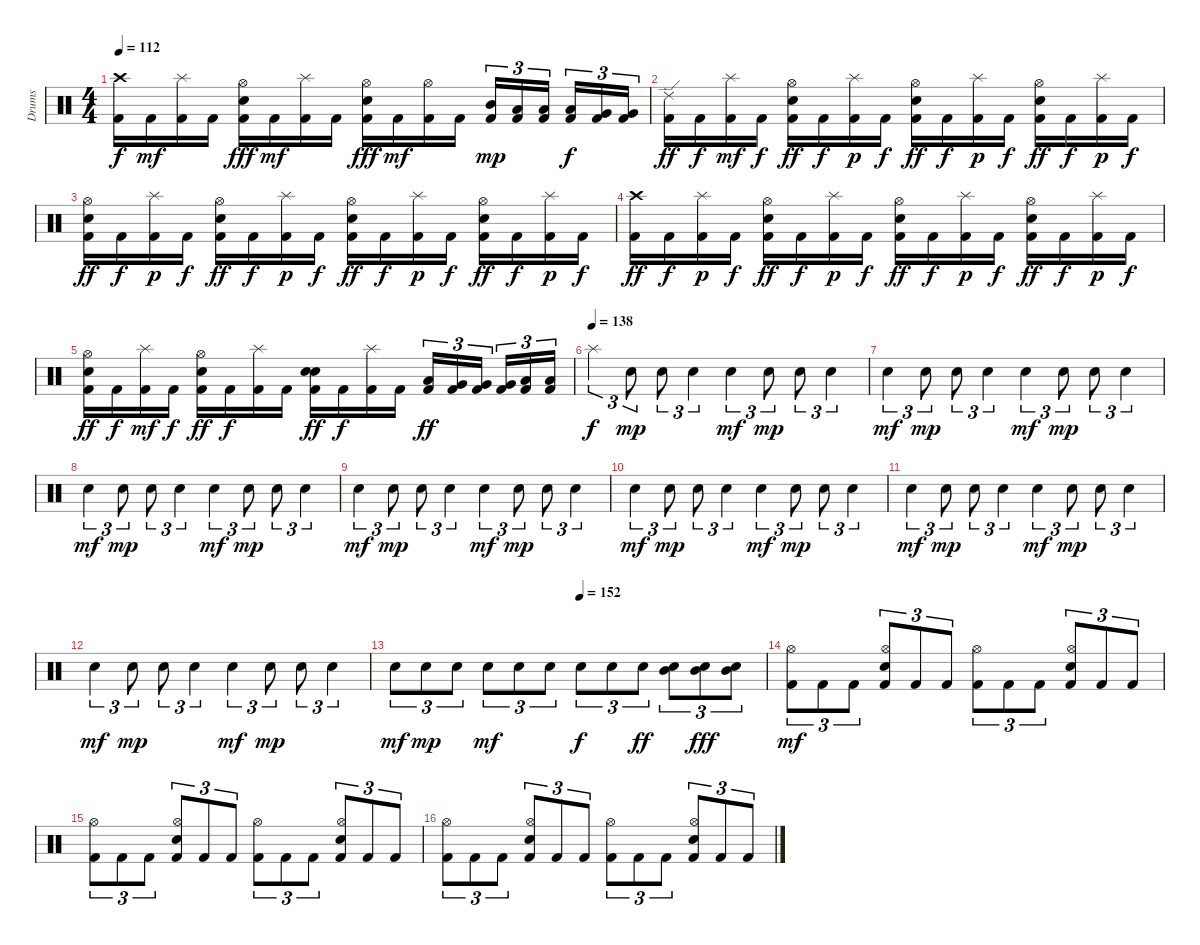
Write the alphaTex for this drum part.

\track ("Drums" "Drums") {instrument percussion}
\staff {score}
\articulation defaults
\ts (4 4)
\tempo 112
\clef neutral
\ks c
("Crash high (hit)" "Kick (hit) 2").16{dy f} "Kick (hit) 2".16{dy mf} ("Splash (hit)" "Kick (hit) 2").16 "Kick (hit) 2".16 ("Hi-Hat (open)" "Electric Snare (hit)" "Kick (hit) 2").16{dy fff} "Kick (hit) 2".16{dy mf} ("Splash (hit)" "Kick (hit) 2").16 "Kick (hit) 2".16 ("Hi-Hat (open)" "Electric Snare (hit)" "Kick (hit) 2").16{dy fff} "Kick (hit) 2".16{dy mf} ("Hi-Hat (open)" "Kick (hit) 2").16 "Kick (hit) 2".16 ("Mid Tom (hit)" "Kick (hit) 2").16{tu (3 2) dy mp} ("Low Tom (hit)" "Kick (hit) 2").16{tu (3 2)} ("Low Tom (hit)" "Kick (hit) 2").16{tu (3 2) beam splitsecondary} ("Low Tom (hit)" "Kick (hit) 2").16{tu (3 2) dy f} ("Very Low Tom (hit)" "Kick (hit) 2").16{tu (3 2)} ("Very Low Tom (hit)" "Kick (hit) 2").16{tu (3 2)} |
("Ride (edge) 2" "Kick (hit) 2").16{dy ff} "Kick (hit) 2".16{dy f} ("Splash (hit)" "Kick (hit) 2").16{dy mf} "Kick (hit) 2".16{dy f} ("Hi-Hat (open)" "Electric Snare (hit)" "Kick (hit) 2").16{dy ff} "Kick (hit) 2".16{dy f} ("Splash (hit)" "Kick (hit) 2").16{dy p} "Kick (hit) 2".16{dy f} ("Hi-Hat (open)" "Electric Snare (hit)" "Kick (hit) 2").16{dy ff} "Kick (hit) 2".16{dy f} ("Splash (hit)" "Kick (hit) 2").16{dy p} "Kick (hit) 2".16{dy f} ("Hi-Hat (open)" "Electric Snare (hit)" "Kick (hit) 2").16{dy ff} "Kick (hit) 2".16{dy f} ("Splash (hit)" "Kick (hit) 2").16{dy p} "Kick (hit) 2".16{dy f} |
("Hi-Hat (open)" "Electric Snare (hit)" "Kick (hit) 2").16{dy ff} "Kick (hit) 2".16{dy f} ("Splash (hit)" "Kick (hit) 2").16{dy p} "Kick (hit) 2".16{dy f} ("Hi-Hat (open)" "Electric Snare (hit)" "Kick (hit) 2").16{dy ff} "Kick (hit) 2".16{dy f} ("Splash (hit)" "Kick (hit) 2").16{dy p} "Kick (hit) 2".16{dy f} ("Hi-Hat (open)" "Electric Snare (hit)" "Kick (hit) 2").16{dy ff} "Kick (hit) 2".16{dy f} ("Splash (hit)" "Kick (hit) 2").16{dy p} "Kick (hit) 2".16{dy f} ("Hi-Hat (open)" "Electric Snare (hit)" "Kick (hit) 2").16{dy ff} "Kick (hit) 2".16{dy f} ("Splash (hit)" "Kick (hit) 2").16{dy p} "Kick (hit) 2".16{dy f} |
("Crash high (hit)" "Kick (hit) 2").16{dy ff} "Kick (hit) 2".16{dy f} ("Splash (hit)" "Kick (hit) 2").16{dy p} "Kick (hit) 2".16{dy f} ("Hi-Hat (open)" "Electric Snare (hit)" "Kick (hit) 2").16{dy ff} "Kick (hit) 2".16{dy f} ("Splash (hit)" "Kick (hit) 2").16{dy p} "Kick (hit) 2".16{dy f} ("Hi-Hat (open)" "Electric Snare (hit)" "Kick (hit) 2").16{dy ff} "Kick (hit) 2".16{dy f} ("Splash (hit)" "Kick (hit) 2").16{dy p} "Kick (hit) 2".16{dy f} ("Hi-Hat (open)" "Electric Snare (hit)" "Kick (hit) 2").16{dy ff} "Kick (hit) 2".16{dy f} ("Splash (hit)" "Kick (hit) 2").16{dy p} "Kick (hit) 2".16{dy f} |
("Hi-Hat (open)" "Electric Snare (hit)" "Kick (hit) 2").16{dy ff} "Kick (hit) 2".16{dy f} ("Splash (hit)" "Kick (hit) 2").16{dy mf} "Kick (hit) 2".16{dy f} ("Hi-Hat (open)" "Electric Snare (hit)" "Kick (hit) 2").16{dy ff} "Kick (hit) 2".16{dy f} ("Splash (hit)" "Kick (hit) 2").16 "Kick (hit) 2".16 ("Electric Snare (hit)" "Electric Snare (hit)" "Kick (hit) 2").16{dy ff} "Kick (hit) 2".16{dy f} ("Splash (hit)" "Kick (hit) 2").16 "Kick (hit) 2".16 ("Low Tom (hit)" "Kick (hit) 2").16{tu (3 2) dy ff} ("Very Low Tom (hit)" "Kick (hit) 2").16{tu (3 2)} ("Very Low Tom (hit)" "Kick (hit) 2").16{tu (3 2) beam splitsecondary} ("Very Low Tom (hit)" "Kick (hit) 2").16{tu (3 2)} ("Low Floor Tom (hit)" "Kick (hit) 2").16{tu (3 2)} ("Low Floor Tom (hit)" "Kick (hit) 2").16{tu (3 2)} |
\tempo (138)
"Splash (hit)".4{tu (3 2) dy f} "Electric Snare (hit)".8{tu (3 2) dy mp} "Electric Snare (hit)".8{tu (3 2)} "Electric Snare (hit)".4{tu (3 2)} "Electric Snare (hit)".4{tu (3 2) dy mf} "Electric Snare (hit)".8{tu (3 2) dy mp} "Electric Snare (hit)".8{tu (3 2)} "Electric Snare (hit)".4{tu (3 2)} |
"Electric Snare (hit)".4{tu (3 2) dy mf} "Electric Snare (hit)".8{tu (3 2) dy mp} "Electric Snare (hit)".8{tu (3 2)} "Electric Snare (hit)".4{tu (3 2)} "Electric Snare (hit)".4{tu (3 2) dy mf} "Electric Snare (hit)".8{tu (3 2) dy mp} "Electric Snare (hit)".8{tu (3 2)} "Electric Snare (hit)".4{tu (3 2)} |
"Electric Snare (hit)".4{tu (3 2) dy mf} "Electric Snare (hit)".8{tu (3 2) dy mp} "Electric Snare (hit)".8{tu (3 2)} "Electric Snare (hit)".4{tu (3 2)} "Electric Snare (hit)".4{tu (3 2) dy mf} "Electric Snare (hit)".8{tu (3 2) dy mp} "Electric Snare (hit)".8{tu (3 2)} "Electric Snare (hit)".4{tu (3 2)} |
"Electric Snare (hit)".4{tu (3 2) dy mf} "Electric Snare (hit)".8{tu (3 2) dy mp} "Electric Snare (hit)".8{tu (3 2)} "Electric Snare (hit)".4{tu (3 2)} "Electric Snare (hit)".4{tu (3 2) dy mf} "Electric Snare (hit)".8{tu (3 2) dy mp} "Electric Snare (hit)".8{tu (3 2)} "Electric Snare (hit)".4{tu (3 2)} |
"Electric Snare (hit)".4{tu (3 2) dy mf} "Electric Snare (hit)".8{tu (3 2) dy mp} "Electric Snare (hit)".8{tu (3 2)} "Electric Snare (hit)".4{tu (3 2)} "Electric Snare (hit)".4{tu (3 2) dy mf} "Electric Snare (hit)".8{tu (3 2) dy mp} "Electric Snare (hit)".8{tu (3 2)} "Electric Snare (hit)".4{tu (3 2)} |
"Electric Snare (hit)".4{tu (3 2) dy mf} "Electric Snare (hit)".8{tu (3 2) dy mp} "Electric Snare (hit)".8{tu (3 2)} "Electric Snare (hit)".4{tu (3 2)} "Electric Snare (hit)".4{tu (3 2) dy mf} "Electric Snare (hit)".8{tu (3 2) dy mp} "Electric Snare (hit)".8{tu (3 2)} "Electric Snare (hit)".4{tu (3 2)} |
"Electric Snare (hit)".4{tu (3 2) dy mf} "Electric Snare (hit)".8{tu (3 2) dy mp} "Electric Snare (hit)".8{tu (3 2)} "Electric Snare (hit)".4{tu (3 2)} "Electric Snare (hit)".4{tu (3 2) dy mf} "Electric Snare (hit)".8{tu (3 2) dy mp} "Electric Snare (hit)".8{tu (3 2)} "Electric Snare (hit)".4{tu (3 2)} |
\tempo (152 0.5)
"Electric Snare (hit)".8{tu (3 2) dy mf} "Electric Snare (hit)".8{tu (3 2) dy mp} "Electric Snare (hit)".8{tu (3 2)} "Electric Snare (hit)".8{tu (3 2) dy mf} "Electric Snare (hit)".8{tu (3 2)} "Electric Snare (hit)".8{tu (3 2)} "Electric Snare (hit)".8{tu (3 2) dy f} "Electric Snare (hit)".8{tu (3 2)} "Electric Snare (hit)".8{tu (3 2) dy ff} ("Mid Tom (hit)" "Electric Snare (hit)").8{tu (3 2)} ("Mid Tom (hit)" "Electric Snare (hit)").8{tu (3 2) dy fff} ("Mid Tom (hit)" "Electric Snare (hit)").8{tu (3 2)} |
("Hi-Hat (open)" "Kick (hit) 2").8{tu (3 2) dy mf} "Kick (hit) 2".8{tu (3 2)} "Kick (hit) 2".8{tu (3 2)} ("Hi-Hat (open)" "Electric Snare (hit)" "Kick (hit) 2").8{tu (3 2)} "Kick (hit) 2".8{tu (3 2)} "Kick (hit) 2".8{tu (3 2)} ("Hi-Hat (open)" "Kick (hit) 2").8{tu (3 2)} "Kick (hit) 2".8{tu (3 2)} "Kick (hit) 2".8{tu (3 2)} ("Hi-Hat (open)" "Electric Snare (hit)" "Kick (hit) 2").8{tu (3 2)} "Kick (hit) 2".8{tu (3 2)} "Kick (hit) 2".8{tu (3 2)} |
("Hi-Hat (open)" "Kick (hit) 2").8{tu (3 2)} "Kick (hit) 2".8{tu (3 2)} "Kick (hit) 2".8{tu (3 2)} ("Hi-Hat (open)" "Electric Snare (hit)" "Kick (hit) 2").8{tu (3 2)} "Kick (hit) 2".8{tu (3 2)} "Kick (hit) 2".8{tu (3 2)} ("Hi-Hat (open)" "Kick (hit) 2").8{tu (3 2)} "Kick (hit) 2".8{tu (3 2)} "Kick (hit) 2".8{tu (3 2)} ("Hi-Hat (open)" "Electric Snare (hit)" "Kick (hit) 2").8{tu (3 2)} "Kick (hit) 2".8{tu (3 2)} "Kick (hit) 2".8{tu (3 2)} |
("Hi-Hat (open)" "Kick (hit) 2").8{tu (3 2)} "Kick (hit) 2".8{tu (3 2)} "Kick (hit) 2".8{tu (3 2)} ("Hi-Hat (open)" "Electric Snare (hit)" "Kick (hit) 2").8{tu (3 2)} "Kick (hit) 2".8{tu (3 2)} "Kick (hit) 2".8{tu (3 2)} ("Hi-Hat (open)" "Kick (hit) 2").8{tu (3 2)} "Kick (hit) 2".8{tu (3 2)} "Kick (hit) 2".8{tu (3 2)} ("Hi-Hat (open)" "Electric Snare (hit)" "Kick (hit) 2").8{tu (3 2)} "Kick (hit) 2".8{tu (3 2)} "Kick (hit) 2".8{tu (3 2)}
